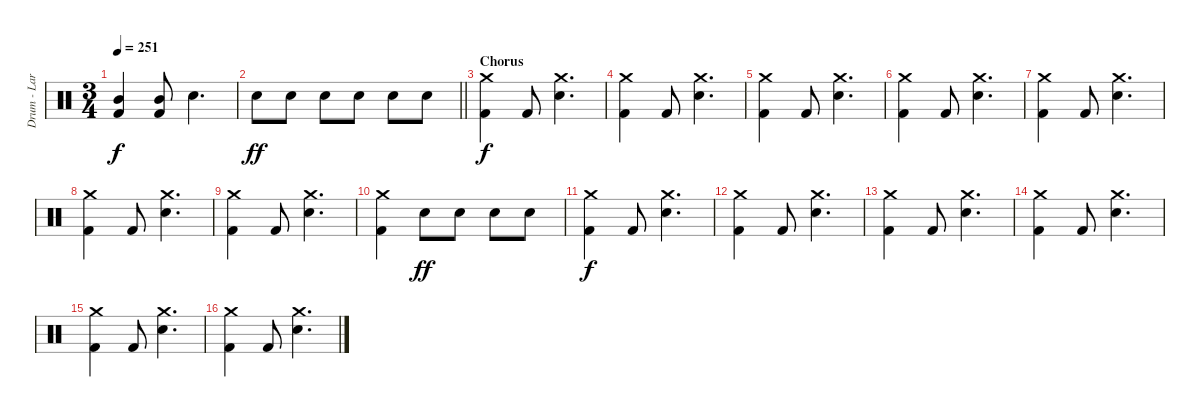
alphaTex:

\track ("Drum - Larzon" "Drum - Lar") {instrument percussion}
\staff {score}
\articulation defaults
\ts (3 4)
\tempo 251
\clef neutral
\ks c
("Kick (hit) 2" "Mid Tom (hit)").4{dy f} ("Kick (hit) 2" "Mid Tom (hit)").8 "Snare (hit) 2".4{d} |
\barLineRight lightlight "Electric Snare (hit)".8{dy ff} "Electric Snare (hit)".8 "Electric Snare (hit)".8 "Electric Snare (hit)".8 "Electric Snare (hit)".8 "Electric Snare (hit)".8
|
\section ("" "Chorus")
("Kick (hit) 2" "Crash medium (hit)").4{dy f} "Kick (hit) 2".8 ("Snare (hit) 2" "Crash medium (hit)").4{d} |
("Kick (hit) 2" "Crash medium (hit)").4 "Kick (hit) 2".8 ("Snare (hit) 2" "Crash medium (hit)").4{d} |
("Kick (hit) 2" "Crash medium (hit)").4 "Kick (hit) 2".8 ("Snare (hit) 2" "Crash medium (hit)").4{d} |
("Kick (hit) 2" "Crash medium (hit)").4 "Kick (hit) 2".8 ("Snare (hit) 2" "Crash medium (hit)").4{d} |
("Kick (hit) 2" "Crash medium (hit)").4 "Kick (hit) 2".8 ("Snare (hit) 2" "Crash medium (hit)").4{d} |
("Kick (hit) 2" "Crash medium (hit)").4 "Kick (hit) 2".8 ("Snare (hit) 2" "Crash medium (hit)").4{d} |
("Kick (hit) 2" "Crash medium (hit)").4 "Kick (hit) 2".8 ("Snare (hit) 2" "Crash medium (hit)").4{d} |
("Kick (hit) 2" "Crash medium (hit)").4 "Electric Snare (hit)".8{dy ff} "Electric Snare (hit)".8 "Electric Snare (hit)".8 "Electric Snare (hit)".8 |
("Kick (hit) 2" "Crash medium (hit)").4{dy f} "Kick (hit) 2".8 ("Snare (hit) 2" "Crash medium (hit)").4{d} |
("Kick (hit) 2" "Crash medium (hit)").4 "Kick (hit) 2".8 ("Snare (hit) 2" "Crash medium (hit)").4{d} |
("Kick (hit) 2" "Crash medium (hit)").4 "Kick (hit) 2".8 ("Snare (hit) 2" "Crash medium (hit)").4{d} |
("Kick (hit) 2" "Crash medium (hit)").4 "Kick (hit) 2".8 ("Snare (hit) 2" "Crash medium (hit)").4{d} |
("Kick (hit) 2" "Crash medium (hit)").4 "Kick (hit) 2".8 ("Snare (hit) 2" "Crash medium (hit)").4{d} |
("Kick (hit) 2" "Crash medium (hit)").4 "Kick (hit) 2".8 ("Snare (hit) 2" "Crash medium (hit)").4{d}
